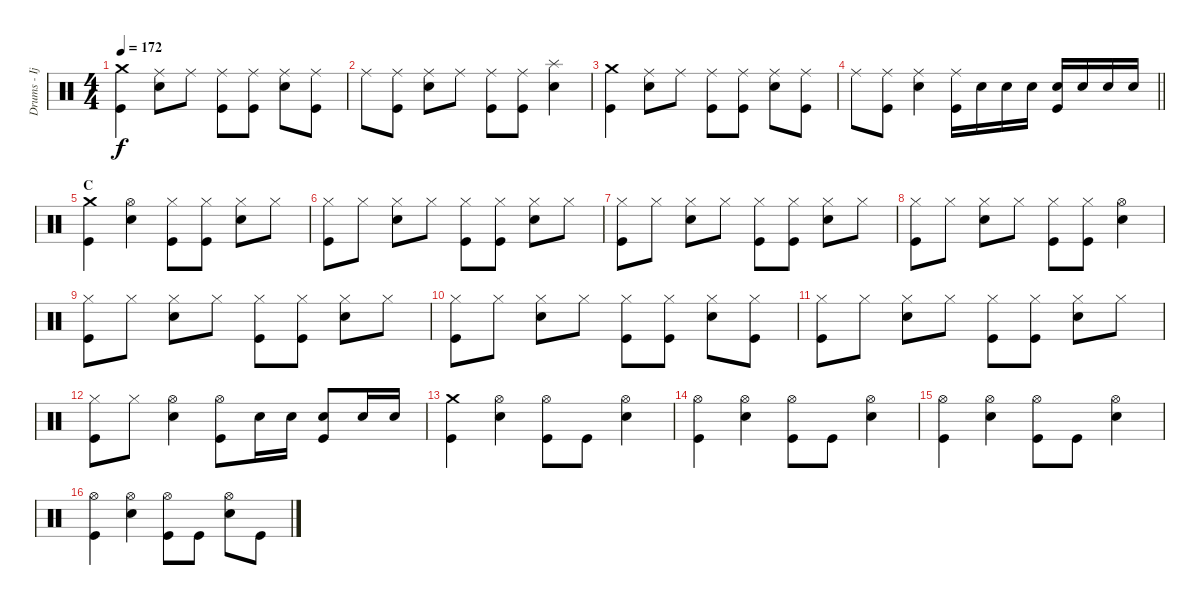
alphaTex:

\track ("Drums - Ijichi" "Drums - Ij") {instrument percussion}
\staff {score}
\articulation defaults
\ts (4 4)
\tempo 172
\clef neutral
\ks c
("Crash medium (hit)" "Kick (hit)").4{dy f} ("Ride (middle)" "Electric Snare (hit)").8 "Ride (middle)".8 ("Ride (middle)" "Kick (hit)").8 ("Ride (middle)" "Kick (hit)").8 ("Ride (middle)" "Electric Snare (hit)").8 ("Ride (middle)" "Kick (hit)").8 |
"Ride (middle)".8 ("Ride (middle)" "Kick (hit)").8 ("Ride (middle)" "Electric Snare (hit)").8 "Ride (middle)".8 ("Ride (middle)" "Kick (hit)").8 ("Ride (middle)" "Kick (hit)").8 ("Splash (hit)" "Electric Snare (hit)").4 |
("Crash medium (hit)" "Kick (hit)").4 ("Ride (middle)" "Electric Snare (hit)").8 "Ride (middle)".8 ("Ride (middle)" "Kick (hit)").8 ("Ride (middle)" "Kick (hit)").8 ("Ride (middle)" "Electric Snare (hit)").8 ("Ride (middle)" "Kick (hit)").8 |
\barLineRight lightlight "Ride (middle)".8
("Ride (middle)" "Kick (hit)").8 ("Ride (middle)" "Electric Snare (hit)").4 ("Ride (middle)" "Kick (hit)").16 "Electric Snare (hit)".16 "Electric Snare (hit)".16 "Electric Snare (hit)".16 ("Electric Snare (hit)" "Kick (hit)").16 "Electric Snare (hit)".16 "Electric Snare (hit)".16 "Electric Snare (hit)".16 |
\section ("" "C")
("Crash medium (hit)" "Kick (hit)").4 ("Hi-Hat (open)" "Electric Snare (hit)").4 ("Hi-Hat (closed)" "Kick (hit)").8 ("Hi-Hat (closed)" "Kick (hit)").8 ("Hi-Hat (closed)" "Electric Snare (hit)").8 "Hi-Hat (closed)".8 |
("Hi-Hat (closed)" "Kick (hit)").8 "Hi-Hat (closed)".8 ("Hi-Hat (closed)" "Electric Snare (hit)").8 "Hi-Hat (closed)".8 ("Hi-Hat (closed)" "Kick (hit)").8 ("Hi-Hat (closed)" "Kick (hit)").8 ("Hi-Hat (closed)" "Electric Snare (hit)").8 "Hi-Hat (closed)".8 |
("Hi-Hat (closed)" "Kick (hit)").8 "Hi-Hat (closed)".8 ("Hi-Hat (closed)" "Electric Snare (hit)").8 "Hi-Hat (closed)".8 ("Hi-Hat (closed)" "Kick (hit)").8 ("Hi-Hat (closed)" "Kick (hit)").8 ("Hi-Hat (closed)" "Electric Snare (hit)").8 "Hi-Hat (closed)".8 |
("Hi-Hat (closed)" "Kick (hit)").8 "Hi-Hat (closed)".8 ("Hi-Hat (closed)" "Electric Snare (hit)").8 "Hi-Hat (closed)".8 ("Hi-Hat (closed)" "Kick (hit)").8 ("Hi-Hat (closed)" "Kick (hit)").8 ("Hi-Hat (open)" "Electric Snare (hit)").4 |
("Hi-Hat (closed)" "Kick (hit)").8 "Hi-Hat (closed)".8 ("Hi-Hat (closed)" "Electric Snare (hit)").8 "Hi-Hat (closed)".8 ("Hi-Hat (closed)" "Kick (hit)").8 ("Hi-Hat (closed)" "Kick (hit)").8 ("Hi-Hat (closed)" "Electric Snare (hit)").8 "Hi-Hat (closed)".8 |
("Hi-Hat (closed)" "Kick (hit)").8 "Hi-Hat (closed)".8 ("Hi-Hat (closed)" "Electric Snare (hit)").8 "Hi-Hat (closed)".8 ("Hi-Hat (closed)" "Kick (hit)").8 ("Hi-Hat (closed)" "Kick (hit)").8 ("Hi-Hat (closed)" "Electric Snare (hit)").8 ("Hi-Hat (closed)" "Kick (hit)").8 |
("Hi-Hat (closed)" "Kick (hit)").8 "Hi-Hat (closed)".8 ("Hi-Hat (closed)" "Electric Snare (hit)").8 "Hi-Hat (closed)".8 ("Hi-Hat (closed)" "Kick (hit)").8 ("Hi-Hat (closed)" "Kick (hit)").8 ("Hi-Hat (closed)" "Electric Snare (hit)").8 "Hi-Hat (closed)".8 |
("Hi-Hat (closed)" "Kick (hit)").8 "Hi-Hat (closed)".8 ("Hi-Hat (open)" "Electric Snare (hit)").4 ("Hi-Hat (open)" "Kick (hit)").8 "Electric Snare (hit)".16 "Electric Snare (hit)".16 ("Electric Snare (hit)" "Kick (hit)").8 "Electric Snare (hit)".16 "Electric Snare (hit)".16 |
("Crash medium (hit)" "Kick (hit)").4 ("Hi-Hat (open)" "Electric Snare (hit)").4 ("Hi-Hat (open)" "Kick (hit)").8 "Kick (hit)".8 ("Hi-Hat (open)" "Electric Snare (hit)").4 |
("Hi-Hat (open)" "Kick (hit)").4 ("Hi-Hat (open)" "Electric Snare (hit)").4 ("Hi-Hat (open)" "Kick (hit)").8 "Kick (hit)".8 ("Hi-Hat (open)" "Electric Snare (hit)").4 |
("Hi-Hat (open)" "Kick (hit)").4 ("Hi-Hat (open)" "Electric Snare (hit)").4 ("Hi-Hat (open)" "Kick (hit)").8 "Kick (hit)".8 ("Hi-Hat (open)" "Electric Snare (hit)").4 |
("Hi-Hat (open)" "Kick (hit)").4 ("Hi-Hat (open)" "Electric Snare (hit)").4 ("Hi-Hat (open)" "Kick (hit)").8 "Kick (hit)".8 ("Hi-Hat (open)" "Electric Snare (hit)").8 "Kick (hit)".8
